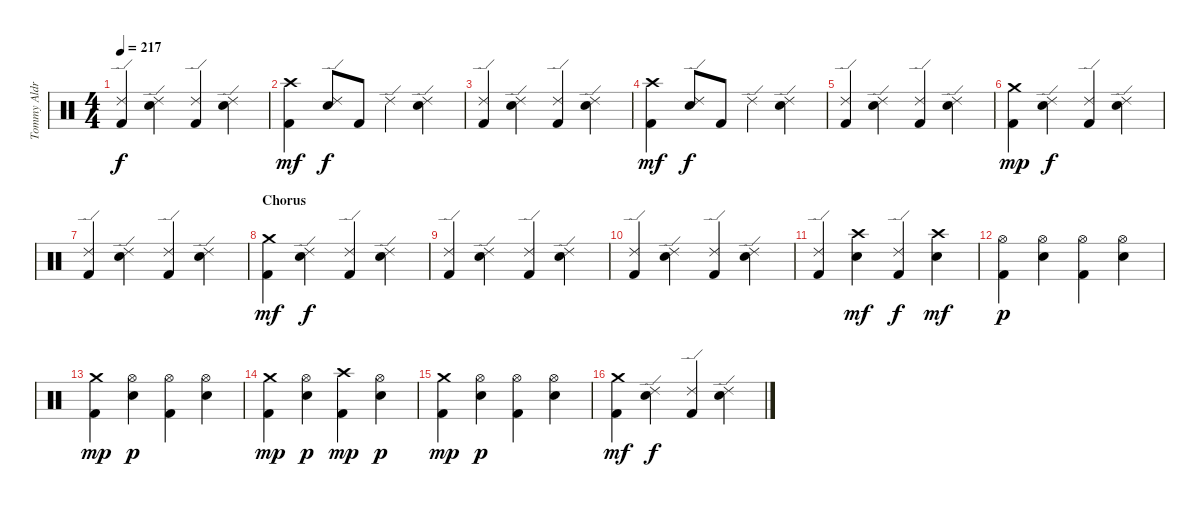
\track ("Tommy Aldridge" "Tommy Aldr") {instrument percussion}
\staff {score}
\articulation defaults
\ts (4 4)
\tempo 217
\clef neutral
\ks c
("Kick (hit) 2" "Ride (edge) 2").4{dy f} ("Ride (edge) 2" "Snare (hit) 2").4 ("Kick (hit) 2" "Ride (edge) 2").4 ("Ride (edge) 2" "Snare (hit) 2").4 |
("Kick (hit) 2" "Crash high (hit)").4{dy mf} ("Ride (edge) 2" "Snare (hit) 2").8{dy f} "Kick (hit) 2".8 "Ride (edge) 2".4 ("Ride (edge) 2" "Snare (hit) 2").4 |
("Kick (hit) 2" "Ride (edge) 2").4 ("Ride (edge) 2" "Snare (hit) 2").4 ("Kick (hit) 2" "Ride (edge) 2").4 ("Ride (edge) 2" "Snare (hit) 2").4 |
("Kick (hit) 2" "Crash high (hit)").4{dy mf} ("Ride (edge) 2" "Snare (hit) 2").8{dy f} "Kick (hit) 2".8 "Ride (edge) 2".4 ("Ride (edge) 2" "Snare (hit) 2").4 |
("Kick (hit) 2" "Ride (edge) 2").4 ("Ride (edge) 2" "Snare (hit) 2").4 ("Kick (hit) 2" "Ride (edge) 2").4 ("Ride (edge) 2" "Snare (hit) 2").4 |
("Kick (hit) 2" "Crash medium (hit)").4{dy mp} ("Ride (edge) 2" "Snare (hit) 2").4{dy f} ("Kick (hit) 2" "Ride (edge) 2").4 ("Ride (edge) 2" "Snare (hit) 2").4 |
("Kick (hit) 2" "Ride (edge) 2").4 ("Ride (edge) 2" "Snare (hit) 2").4 ("Kick (hit) 2" "Ride (edge) 2").4 ("Ride (edge) 2" "Snare (hit) 2").4 |
\section ("" "Chorus")
("Kick (hit) 2" "Crash medium (hit)").4{dy mf} ("Ride (edge) 2" "Snare (hit) 2").4{dy f} ("Kick (hit) 2" "Ride (edge) 2").4 ("Ride (edge) 2" "Snare (hit) 2").4 |
("Kick (hit) 2" "Ride (edge) 2").4 ("Ride (edge) 2" "Snare (hit) 2").4 ("Kick (hit) 2" "Ride (edge) 2").4 ("Ride (edge) 2" "Snare (hit) 2").4 |
("Kick (hit) 2" "Ride (edge) 2").4 ("Ride (edge) 2" "Snare (hit) 2").4 ("Kick (hit) 2" "Ride (edge) 2").4 ("Ride (edge) 2" "Snare (hit) 2").4 |
("Kick (hit) 2" "Ride (edge) 2").4 ("Crash high (hit)" "Snare (hit) 2").4{dy mf} ("Kick (hit) 2" "Ride (edge) 2").4{dy f} ("Crash high (hit)" "Snare (hit) 2").4{dy mf} |
("Kick (hit) 2" "Hi-Hat (open)").4{dy p} ("Hi-Hat (open)" "Snare (hit) 2").4 ("Kick (hit) 2" "Hi-Hat (open)").4 ("Hi-Hat (open)" "Snare (hit) 2").4 |
("Kick (hit) 2" "Crash medium (hit)").4{dy mp} ("Hi-Hat (open)" "Snare (hit) 2").4{dy p} ("Kick (hit) 2" "Hi-Hat (open)").4 ("Hi-Hat (open)" "Snare (hit) 2").4 |
("Kick (hit) 2" "Crash medium (hit)").4{dy mp} ("Hi-Hat (open)" "Snare (hit) 2").4{dy p} ("Kick (hit) 2" "Crash high (hit)").4{dy mp} ("Hi-Hat (open)" "Snare (hit) 2").4{dy p} |
("Kick (hit) 2" "Crash medium (hit)").4{dy mp} ("Hi-Hat (open)" "Snare (hit) 2").4{dy p} ("Kick (hit) 2" "Hi-Hat (open)").4 ("Hi-Hat (open)" "Snare (hit) 2").4 |
("Kick (hit) 2" "Crash medium (hit)").4{dy mf} ("Ride (edge) 2" "Snare (hit) 2").4{dy f} ("Kick (hit) 2" "Ride (edge) 2").4 ("Ride (edge) 2" "Snare (hit) 2").4
